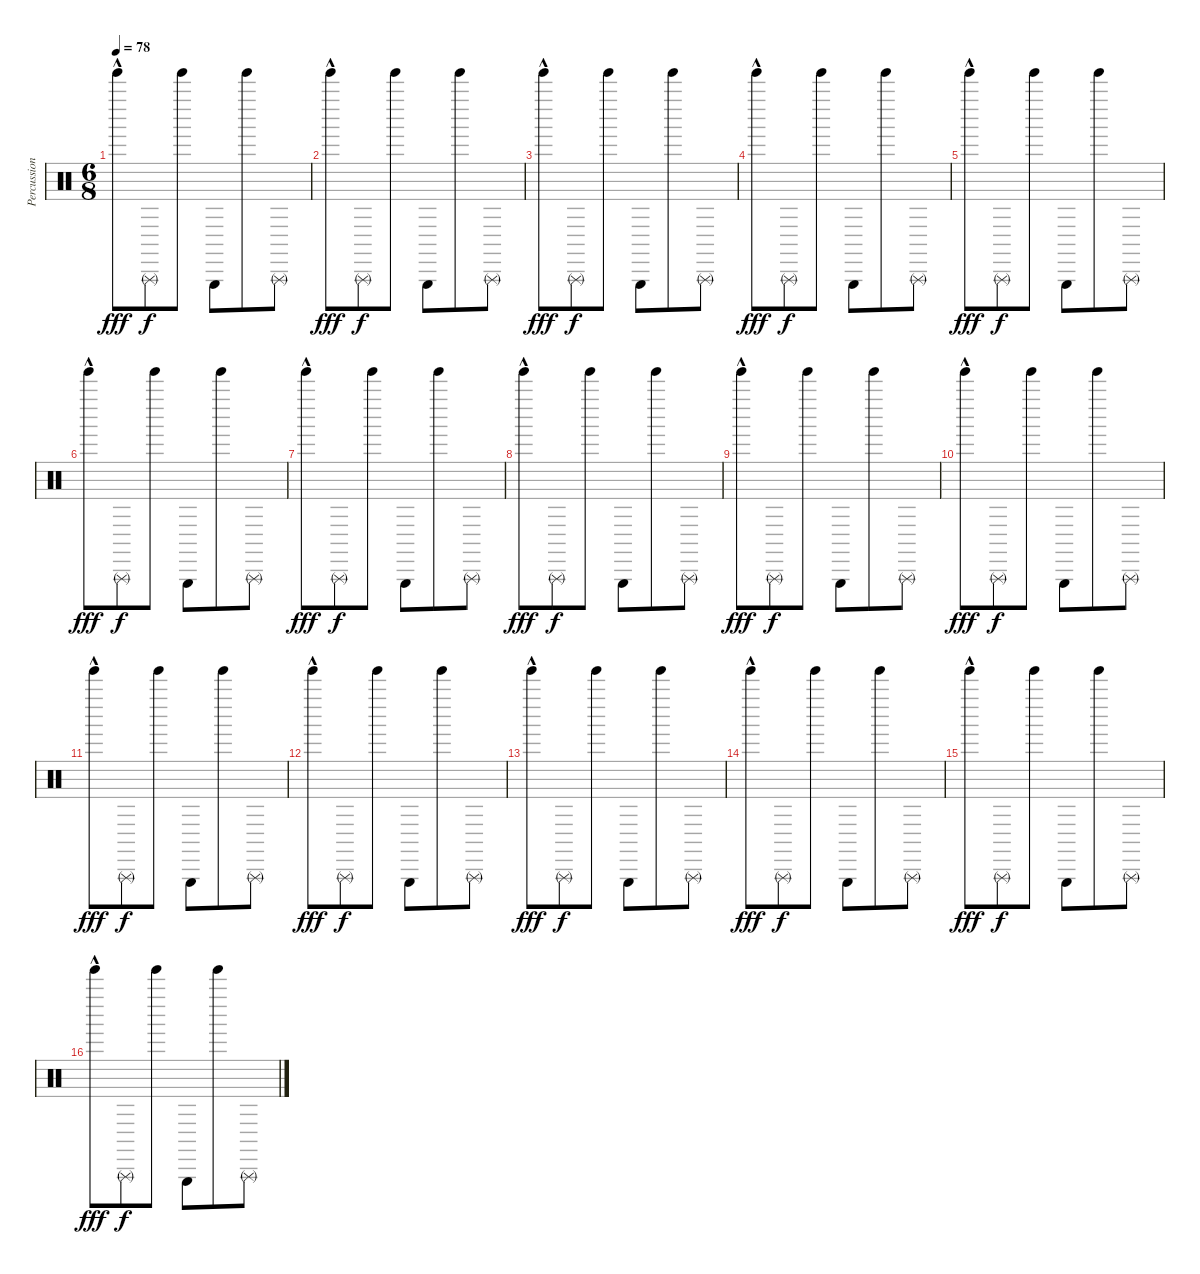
\track ("Percussion" "Percussion") {instrument percussion}
\staff {score}
\articulation defaults
\ts (6 8)
\tempo 78
\clef neutral
\ks c "Tinkle Bell (hit)"{hac}.8{dy fff} "Triangle (rnute)".8{dy f} "Tinkle Bell (hit)".8 "Triangle (hit)".8 "Tinkle Bell (hit)".8 "Triangle (rnute)".8
|
"Tinkle Bell (hit)"{hac}.8{dy fff} "Triangle (rnute)".8{dy f} "Tinkle Bell (hit)".8 "Triangle (hit)".8 "Tinkle Bell (hit)".8 "Triangle (rnute)".8 |
"Tinkle Bell (hit)"{hac}.8{dy fff} "Triangle (rnute)".8{dy f} "Tinkle Bell (hit)".8 "Triangle (hit)".8 "Tinkle Bell (hit)".8 "Triangle (rnute)".8 |
"Tinkle Bell (hit)"{hac}.8{dy fff} "Triangle (rnute)".8{dy f} "Tinkle Bell (hit)".8 "Triangle (hit)".8 "Tinkle Bell (hit)".8 "Triangle (rnute)".8 |
"Tinkle Bell (hit)"{hac}.8{dy fff} "Triangle (rnute)".8{dy f} "Tinkle Bell (hit)".8 "Triangle (hit)".8 "Tinkle Bell (hit)".8 "Triangle (rnute)".8 |
"Tinkle Bell (hit)"{hac}.8{dy fff} "Triangle (rnute)".8{dy f} "Tinkle Bell (hit)".8 "Triangle (hit)".8 "Tinkle Bell (hit)".8 "Triangle (rnute)".8 |
"Tinkle Bell (hit)"{hac}.8{dy fff} "Triangle (rnute)".8{dy f} "Tinkle Bell (hit)".8 "Triangle (hit)".8 "Tinkle Bell (hit)".8 "Triangle (rnute)".8 |
"Tinkle Bell (hit)"{hac}.8{dy fff} "Triangle (rnute)".8{dy f} "Tinkle Bell (hit)".8 "Triangle (hit)".8 "Tinkle Bell (hit)".8 "Triangle (rnute)".8 |
"Tinkle Bell (hit)"{hac}.8{dy fff} "Triangle (rnute)".8{dy f} "Tinkle Bell (hit)".8 "Triangle (hit)".8 "Tinkle Bell (hit)".8 "Triangle (rnute)".8 |
"Tinkle Bell (hit)"{hac}.8{dy fff} "Triangle (rnute)".8{dy f} "Tinkle Bell (hit)".8 "Triangle (hit)".8 "Tinkle Bell (hit)".8 "Triangle (rnute)".8 |
"Tinkle Bell (hit)"{hac}.8{dy fff} "Triangle (rnute)".8{dy f} "Tinkle Bell (hit)".8 "Triangle (hit)".8 "Tinkle Bell (hit)".8 "Triangle (rnute)".8 |
"Tinkle Bell (hit)"{hac}.8{dy fff} "Triangle (rnute)".8{dy f} "Tinkle Bell (hit)".8 "Triangle (hit)".8 "Tinkle Bell (hit)".8 "Triangle (rnute)".8 |
"Tinkle Bell (hit)"{hac}.8{dy fff} "Triangle (rnute)".8{dy f} "Tinkle Bell (hit)".8 "Triangle (hit)".8 "Tinkle Bell (hit)".8 "Triangle (rnute)".8 |
"Tinkle Bell (hit)"{hac}.8{dy fff} "Triangle (rnute)".8{dy f} "Tinkle Bell (hit)".8 "Triangle (hit)".8 "Tinkle Bell (hit)".8 "Triangle (rnute)".8 |
"Tinkle Bell (hit)"{hac}.8{dy fff} "Triangle (rnute)".8{dy f} "Tinkle Bell (hit)".8 "Triangle (hit)".8 "Tinkle Bell (hit)".8 "Triangle (rnute)".8 |
"Tinkle Bell (hit)"{hac}.8{dy fff} "Triangle (rnute)".8{dy f} "Tinkle Bell (hit)".8 "Triangle (hit)".8 "Tinkle Bell (hit)".8 "Triangle (rnute)".8
